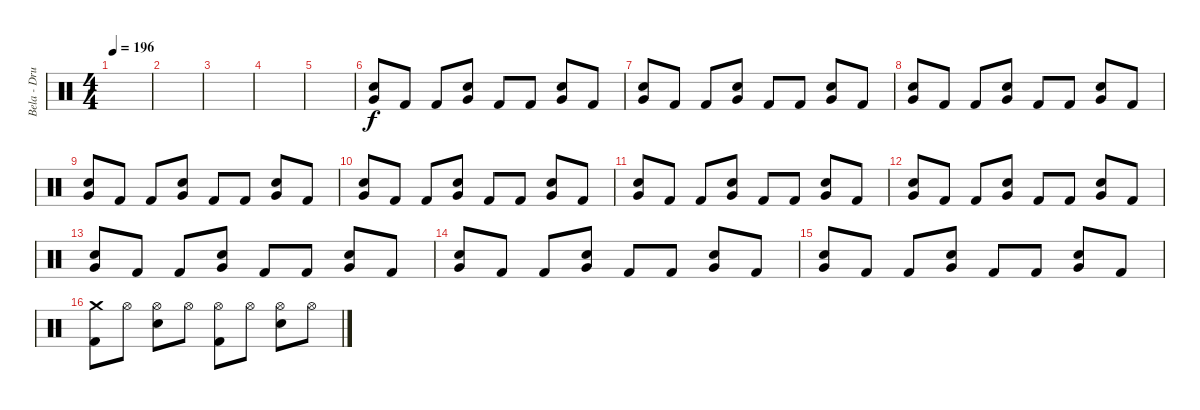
\track ("Bela - Drums" "Bela - Dru") {instrument percussion}
\staff {score}
\articulation defaults
\ts (4 4)
\tempo 196
\clef neutral
\ks c
|
|
|
|
|
("Electric Snare (hit)" "Very Low Tom (hit)").8 "Kick (hit) 2".8 "Kick (hit) 2".8 ("Electric Snare (hit)" "Very Low Tom (hit)").8 "Kick (hit) 2".8 "Kick (hit) 2".8 ("Electric Snare (hit)" "Very Low Tom (hit)").8 "Kick (hit) 2".8 |
("Electric Snare (hit)" "Very Low Tom (hit)").8 "Kick (hit) 2".8 "Kick (hit) 2".8 ("Electric Snare (hit)" "Very Low Tom (hit)").8 "Kick (hit) 2".8 "Kick (hit) 2".8 ("Electric Snare (hit)" "Very Low Tom (hit)").8 "Kick (hit) 2".8 |
("Electric Snare (hit)" "Very Low Tom (hit)").8 "Kick (hit) 2".8 "Kick (hit) 2".8 ("Electric Snare (hit)" "Very Low Tom (hit)").8 "Kick (hit) 2".8 "Kick (hit) 2".8 ("Electric Snare (hit)" "Very Low Tom (hit)").8 "Kick (hit) 2".8 |
("Electric Snare (hit)" "Very Low Tom (hit)").8 "Kick (hit) 2".8 "Kick (hit) 2".8 ("Electric Snare (hit)" "Very Low Tom (hit)").8 "Kick (hit) 2".8 "Kick (hit) 2".8 ("Electric Snare (hit)" "Very Low Tom (hit)").8 "Kick (hit) 2".8 |
("Electric Snare (hit)" "Very Low Tom (hit)").8 "Kick (hit) 2".8 "Kick (hit) 2".8 ("Electric Snare (hit)" "Very Low Tom (hit)").8 "Kick (hit) 2".8 "Kick (hit) 2".8 ("Electric Snare (hit)" "Very Low Tom (hit)").8 "Kick (hit) 2".8 |
("Electric Snare (hit)" "Very Low Tom (hit)").8 "Kick (hit) 2".8 "Kick (hit) 2".8 ("Electric Snare (hit)" "Very Low Tom (hit)").8 "Kick (hit) 2".8 "Kick (hit) 2".8 ("Electric Snare (hit)" "Very Low Tom (hit)").8 "Kick (hit) 2".8 |
("Electric Snare (hit)" "Very Low Tom (hit)").8 "Kick (hit) 2".8 "Kick (hit) 2".8 ("Electric Snare (hit)" "Very Low Tom (hit)").8 "Kick (hit) 2".8 "Kick (hit) 2".8 ("Electric Snare (hit)" "Very Low Tom (hit)").8 "Kick (hit) 2".8 |
("Electric Snare (hit)" "Very Low Tom (hit)").8 "Kick (hit) 2".8 "Kick (hit) 2".8 ("Electric Snare (hit)" "Very Low Tom (hit)").8 "Kick (hit) 2".8 "Kick (hit) 2".8 ("Electric Snare (hit)" "Very Low Tom (hit)").8 "Kick (hit) 2".8 |
("Electric Snare (hit)" "Very Low Tom (hit)").8 "Kick (hit) 2".8 "Kick (hit) 2".8 ("Electric Snare (hit)" "Very Low Tom (hit)").8 "Kick (hit) 2".8 "Kick (hit) 2".8 ("Electric Snare (hit)" "Very Low Tom (hit)").8 "Kick (hit) 2".8 |
("Electric Snare (hit)" "Very Low Tom (hit)").8 "Kick (hit) 2".8 "Kick (hit) 2".8 ("Electric Snare (hit)" "Very Low Tom (hit)").8 "Kick (hit) 2".8 "Kick (hit) 2".8 ("Electric Snare (hit)" "Very Low Tom (hit)").8 "Kick (hit) 2".8 |
("Crash medium (hit)" "Kick (hit) 2").8 "Hi-Hat (open)".8 ("Hi-Hat (open)" "Electric Snare (hit)").8 "Hi-Hat (open)".8 ("Hi-Hat (open)" "Kick (hit) 2").8 "Hi-Hat (open)".8 ("Hi-Hat (open)" "Electric Snare (hit)").8 "Hi-Hat (open)".8
